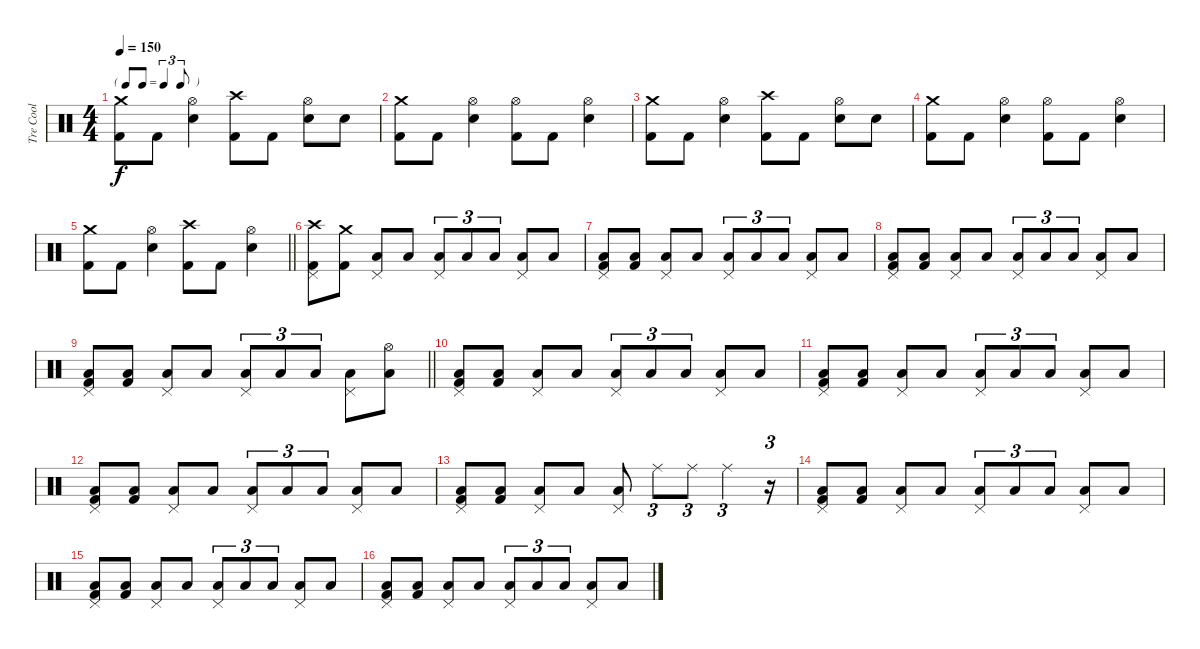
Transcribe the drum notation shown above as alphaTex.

\track ("Tre Cool" "Tre Cool") {instrument percussion}
\staff {score}
\articulation defaults
\ts (4 4)
\tf triplet8th
\tempo 150
\clef neutral
\ks c
("Crash medium (hit)" "Kick (hit) 2").8{dy f} "Kick (hit) 2".8 ("Hi-Hat (open)" "Electric Snare (hit)").4 ("Crash high (hit)" "Kick (hit) 2").8 "Kick (hit) 2".8 ("Hi-Hat (open)" "Electric Snare (hit)").8 "Electric Snare (hit)".8 |
("Crash medium (hit)" "Kick (hit) 2").8 "Kick (hit) 2".8 ("Hi-Hat (open)" "Electric Snare (hit)").4 ("Hi-Hat (open)" "Kick (hit) 2").8 "Kick (hit) 2".8 ("Hi-Hat (open)" "Electric Snare (hit)").4 |
("Crash medium (hit)" "Kick (hit) 2").8 "Kick (hit) 2".8 ("Hi-Hat (open)" "Electric Snare (hit)").4 ("Crash high (hit)" "Kick (hit) 2").8 "Kick (hit) 2".8 ("Hi-Hat (open)" "Electric Snare (hit)").8 "Electric Snare (hit)".8 |
("Crash medium (hit)" "Kick (hit) 2").8 "Kick (hit) 2".8 ("Hi-Hat (open)" "Electric Snare (hit)").4 ("Hi-Hat (open)" "Kick (hit) 2").8 "Kick (hit) 2".8 ("Hi-Hat (open)" "Electric Snare (hit)").4 |
\barLineRight lightlight
("Crash medium (hit)" "Kick (hit) 2").8 "Kick (hit) 2".8 ("Hi-Hat (open)" "Electric Snare (hit)").4 ("Crash high (hit)" "Kick (hit) 2").8 "Kick (hit) 2".8 ("Hi-Hat (open)" "Electric Snare (hit)").4 |
("Crash high (hit)" "Pedal Hi-Hat (hit)" "Kick (hit) 2").8 ("Crash medium (hit)" "Kick (hit) 2").8 ("Pedal Hi-Hat (hit)" "Low Tom (hit)").8 "Low Floor Tom (hit)".8 ("Pedal Hi-Hat (hit)" "Low Floor Tom (hit)").8{tu (3 2)} "Low Floor Tom (hit)".8{tu (3 2)} "Low Floor Tom (hit)".8{tu (3 2)} ("Pedal Hi-Hat (hit)" "Low Tom (hit)").8 "Low Floor Tom (hit)".8 |
("Pedal Hi-Hat (hit)" "Low Floor Tom (hit)" "Kick (hit) 2").8 ("Low Floor Tom (hit)" "Kick (hit) 2").8 ("Pedal Hi-Hat (hit)" "Low Tom (hit)").8 "Low Tom (hit)".8 ("Pedal Hi-Hat (hit)" "Low Floor Tom (hit)").8{tu (3 2)} "Low Floor Tom (hit)".8{tu (3 2)} "Low Floor Tom (hit)".8{tu (3 2)} ("Pedal Hi-Hat (hit)" "Low Tom (hit)").8 "Low Floor Tom (hit)".8 |
("Pedal Hi-Hat (hit)" "Low Floor Tom (hit)" "Kick (hit) 2").8 ("Low Floor Tom (hit)" "Kick (hit) 2").8 ("Pedal Hi-Hat (hit)" "Low Tom (hit)").8 "Low Floor Tom (hit)".8 ("Pedal Hi-Hat (hit)" "Low Floor Tom (hit)").8{tu (3 2)} "Low Floor Tom (hit)".8{tu (3 2)} "Low Floor Tom (hit)".8{tu (3 2)} ("Pedal Hi-Hat (hit)" "Low Tom (hit)").8 "Low Floor Tom (hit)".8 |
\barLineRight lightlight
("Pedal Hi-Hat (hit)" "Low Floor Tom (hit)" "Kick (hit) 2").8 ("Low Floor Tom (hit)" "Kick (hit) 2").8 ("Pedal Hi-Hat (hit)" "Low Tom (hit)").8 "Low Tom (hit)".8 ("Pedal Hi-Hat (hit)" "Low Floor Tom (hit)").8{tu (3 2)} "Low Floor Tom (hit)".8{tu (3 2)} "Low Floor Tom (hit)".8{tu (3 2)} ("Pedal Hi-Hat (hit)" "Low Tom (hit)").8 ("Hi-Hat (open)" "Low Floor Tom (hit)").8 |
("Pedal Hi-Hat (hit)" "Low Floor Tom (hit)" "Kick (hit) 2").8 ("Low Floor Tom (hit)" "Kick (hit) 2").8 ("Pedal Hi-Hat (hit)" "Low Tom (hit)").8 "Low Floor Tom (hit)".8 ("Pedal Hi-Hat (hit)" "Low Floor Tom (hit)").8{tu (3 2)} "Low Floor Tom (hit)".8{tu (3 2)} "Low Floor Tom (hit)".8{tu (3 2)} ("Pedal Hi-Hat (hit)" "Low Tom (hit)").8 "Low Floor Tom (hit)".8 |
("Pedal Hi-Hat (hit)" "Low Floor Tom (hit)" "Kick (hit) 2").8 ("Low Floor Tom (hit)" "Kick (hit) 2").8 ("Pedal Hi-Hat (hit)" "Low Tom (hit)").8 "Low Tom (hit)".8 ("Pedal Hi-Hat (hit)" "Low Floor Tom (hit)").8{tu (3 2)} "Low Floor Tom (hit)".8{tu (3 2)} "Low Floor Tom (hit)".8{tu (3 2)} ("Pedal Hi-Hat (hit)" "Low Tom (hit)").8 "Low Floor Tom (hit)".8 |
("Pedal Hi-Hat (hit)" "Low Floor Tom (hit)" "Kick (hit) 2").8 ("Low Floor Tom (hit)" "Kick (hit) 2").8 ("Pedal Hi-Hat (hit)" "Low Tom (hit)").8 "Low Floor Tom (hit)".8 ("Pedal Hi-Hat (hit)" "Low Floor Tom (hit)").8{tu (3 2)} "Low Floor Tom (hit)".8{tu (3 2)} "Low Floor Tom (hit)".8{tu (3 2)} ("Pedal Hi-Hat (hit)" "Low Tom (hit)").8 "Low Floor Tom (hit)".8 |
("Pedal Hi-Hat (hit)" "Low Floor Tom (hit)" "Kick (hit) 2").8 ("Low Floor Tom (hit)" "Kick (hit) 2").8 ("Pedal Hi-Hat (hit)" "Low Tom (hit)").8 "Low Tom (hit)".8 ("Pedal Hi-Hat (hit)" "Low Floor Tom (hit)").8 "Ride (middle)".8{tu (3 2)} "Ride (middle)".8{tu (3 2)} "Ride (middle)".4{tu (3 2)} r.16{tu (3 2)} |
("Pedal Hi-Hat (hit)" "Low Floor Tom (hit)" "Kick (hit) 2").8 ("Low Floor Tom (hit)" "Kick (hit) 2").8 ("Pedal Hi-Hat (hit)" "Low Tom (hit)").8 "Low Floor Tom (hit)".8 ("Pedal Hi-Hat (hit)" "Low Floor Tom (hit)").8{tu (3 2)} "Low Floor Tom (hit)".8{tu (3 2)} "Low Floor Tom (hit)".8{tu (3 2)} ("Pedal Hi-Hat (hit)" "Low Tom (hit)").8 "Low Floor Tom (hit)".8 |
("Pedal Hi-Hat (hit)" "Low Floor Tom (hit)" "Kick (hit) 2").8 ("Low Floor Tom (hit)" "Kick (hit) 2").8 ("Pedal Hi-Hat (hit)" "Low Tom (hit)").8 "Low Tom (hit)".8 ("Pedal Hi-Hat (hit)" "Low Floor Tom (hit)").8{tu (3 2)} "Low Floor Tom (hit)".8{tu (3 2)} "Low Floor Tom (hit)".8{tu (3 2)} ("Pedal Hi-Hat (hit)" "Low Tom (hit)").8 "Low Floor Tom (hit)".8 |
("Pedal Hi-Hat (hit)" "Low Floor Tom (hit)" "Kick (hit) 2").8 ("Low Floor Tom (hit)" "Kick (hit) 2").8 ("Pedal Hi-Hat (hit)" "Low Tom (hit)").8 "Low Floor Tom (hit)".8 ("Pedal Hi-Hat (hit)" "Low Floor Tom (hit)").8{tu (3 2)} "Low Floor Tom (hit)".8{tu (3 2)} "Low Floor Tom (hit)".8{tu (3 2)} ("Pedal Hi-Hat (hit)" "Low Tom (hit)").8 "Low Floor Tom (hit)".8
